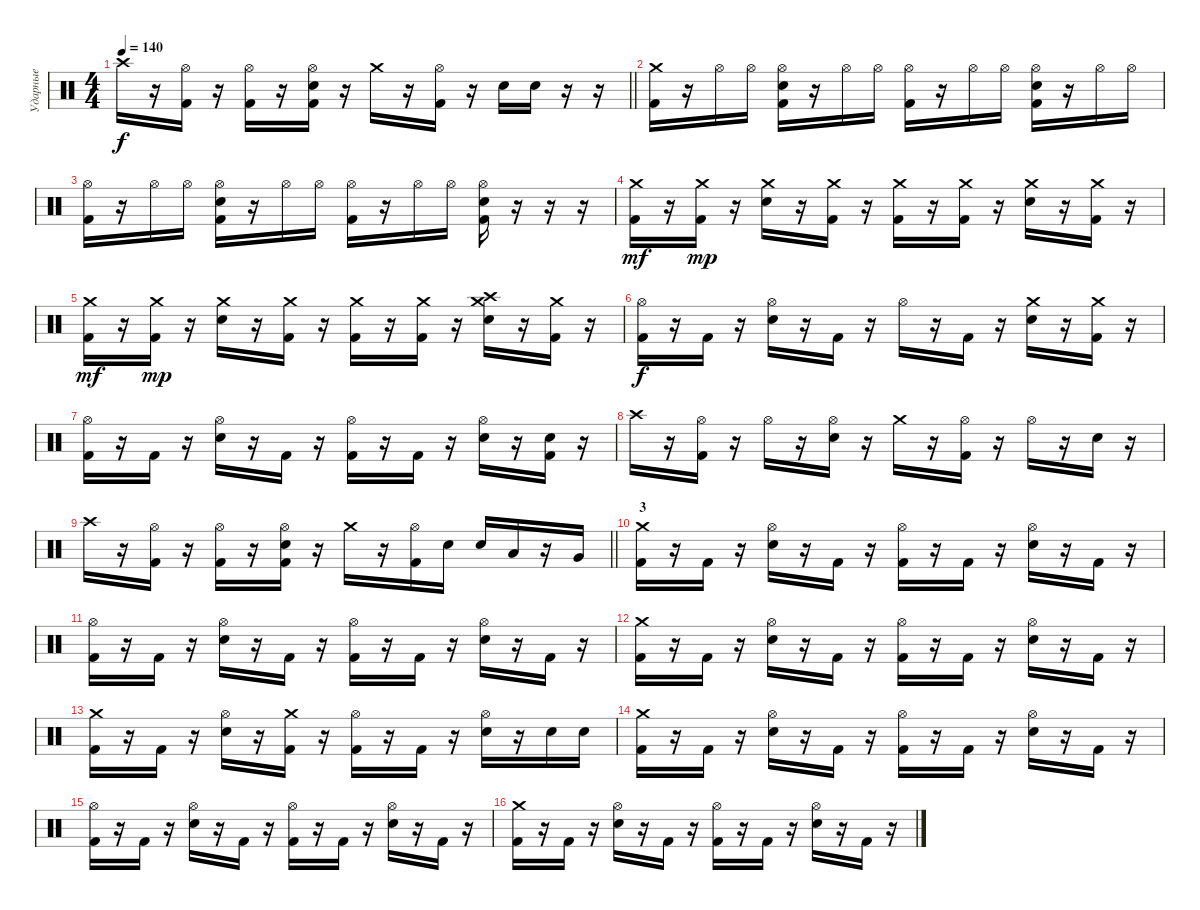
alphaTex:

\track ("Ударные" "Ударные") {instrument percussion}
\staff {score}
\articulation defaults
\ts (4 4)
\tempo 140
\clef neutral
\barLineRight lightlight
\ks c "Crash high (hit)".16{dy f}
r.16 ("Hi-Hat (open)" "Kick (hit) 2").16 r.16 ("Hi-Hat (open)" "Kick (hit) 2").16 r.16 ("Hi-Hat (open)" "Electric Snare (hit)" "Kick (hit) 2").16 r.16 "Crash medium (hit)".16 r.16 ("Hi-Hat (open)" "Kick (hit) 2").16 r.16 "Electric Snare (hit)".16 "Electric Snare (hit)".16 r.16 r.16 |
("Crash medium (hit)" "Kick (hit) 2").16 r.16 "Hi-Hat (open)".16 "Hi-Hat (open)".16 ("Hi-Hat (open)" "Electric Snare (hit)" "Kick (hit) 2").16 r.16 "Hi-Hat (open)".16 "Hi-Hat (open)".16 ("Hi-Hat (open)" "Kick (hit) 2").16 r.16 "Hi-Hat (open)".16 "Hi-Hat (open)".16 ("Hi-Hat (open)" "Electric Snare (hit)" "Kick (hit) 2").16 r.16 "Hi-Hat (open)".16 "Hi-Hat (open)".16 |
("Hi-Hat (open)" "Kick (hit) 2").16 r.16 "Hi-Hat (open)".16 "Hi-Hat (open)".16 ("Hi-Hat (open)" "Electric Snare (hit)" "Kick (hit) 2").16 r.16 "Hi-Hat (open)".16 "Hi-Hat (open)".16 ("Hi-Hat (open)" "Kick (hit) 2").16 r.16 "Hi-Hat (open)".16 "Hi-Hat (open)".16 ("Hi-Hat (open)" "Electric Snare (hit)" "Kick (hit) 2").16 r.16 r.16 r.16 |
("Crash medium (hit)" "Kick (hit) 2").16{dy mf} r.16 ("Crash medium (hit)" "Kick (hit) 2").16{dy mp} r.16 ("Crash medium (hit)" "Electric Snare (hit)").16 r.16 ("Crash medium (hit)" "Kick (hit) 2").16 r.16 ("Crash medium (hit)" "Kick (hit) 2").16 r.16 ("Crash medium (hit)" "Kick (hit) 2").16 r.16 ("Crash medium (hit)" "Electric Snare (hit)").16 r.16 ("Crash medium (hit)" "Kick (hit) 2").16 r.16 |
("Crash medium (hit)" "Kick (hit) 2").16{dy mf} r.16 ("Crash medium (hit)" "Kick (hit) 2").16{dy mp} r.16 ("Crash medium (hit)" "Electric Snare (hit)").16 r.16 ("Crash medium (hit)" "Kick (hit) 2").16 r.16 ("Crash medium (hit)" "Kick (hit) 2").16 r.16 ("Crash medium (hit)" "Kick (hit) 2").16 r.16 ("Crash medium (hit)" "Crash high (hit)" "Electric Snare (hit)").16 r.16 ("Crash medium (hit)" "Kick (hit) 2").16 r.16 |
("Hi-Hat (open)" "Kick (hit) 2").16{dy f} r.16 "Kick (hit) 2".16 r.16 ("Hi-Hat (open)" "Electric Snare (hit)").16 r.16 "Kick (hit) 2".16 r.16 "Hi-Hat (open)".16 r.16 "Kick (hit) 2".16 r.16 ("Crash medium (hit)" "Electric Snare (hit)").16 r.16 ("Crash medium (hit)" "Kick (hit) 2").16 r.16 |
("Hi-Hat (open)" "Kick (hit) 2").16 r.16 "Kick (hit) 2".16 r.16 ("Hi-Hat (open)" "Electric Snare (hit)").16 r.16 "Kick (hit) 2".16 r.16 ("Hi-Hat (open)" "Kick (hit) 2").16 r.16 "Kick (hit) 2".16 r.16 ("Hi-Hat (open)" "Electric Snare (hit)").16 r.16 ("Electric Snare (hit)" "Kick (hit) 2").16 r.16 |
"Crash high (hit)".16 r.16 ("Hi-Hat (open)" "Kick (hit) 2").16 r.16 "Hi-Hat (open)".16 r.16 ("Hi-Hat (open)" "Electric Snare (hit)").16 r.16 "Crash medium (hit)".16 r.16 ("Hi-Hat (open)" "Kick (hit) 2").16 r.16 "Hi-Hat (open)".16 r.16 "Electric Snare (hit)".16 r.16 |
\barLineRight lightlight "Crash high (hit)".16
r.16 ("Hi-Hat (open)" "Kick (hit) 2").16 r.16 ("Hi-Hat (open)" "Kick (hit) 2").16 r.16 ("Hi-Hat (open)" "Electric Snare (hit)" "Kick (hit) 2").16 r.16 "Crash medium (hit)".16 r.16 ("Hi-Hat (open)" "Kick (hit) 2").16 "Electric Snare (hit)".16 "Electric Snare (hit)".16 "Low Tom (hit)".16 r.16 "Very Low Tom (hit)".16 |
\section ("" " 3")
("Crash medium (hit)" "Kick (hit) 2").16 r.16 "Kick (hit) 2".16 r.16 ("Hi-Hat (open)" "Electric Snare (hit)").16 r.16 "Kick (hit) 2".16 r.16 ("Hi-Hat (open)" "Kick (hit) 2").16 r.16 "Kick (hit) 2".16 r.16 ("Hi-Hat (open)" "Electric Snare (hit)").16 r.16 "Kick (hit) 2".16 r.16 |
("Hi-Hat (open)" "Kick (hit) 2").16 r.16 "Kick (hit) 2".16 r.16 ("Hi-Hat (open)" "Electric Snare (hit)").16 r.16 "Kick (hit) 2".16 r.16 ("Hi-Hat (open)" "Kick (hit) 2").16 r.16 "Kick (hit) 2".16 r.16 ("Hi-Hat (open)" "Electric Snare (hit)").16 r.16 "Kick (hit) 2".16 r.16 |
("Crash medium (hit)" "Kick (hit) 2").16 r.16 "Kick (hit) 2".16 r.16 ("Hi-Hat (open)" "Electric Snare (hit)").16 r.16 "Kick (hit) 2".16 r.16 ("Hi-Hat (open)" "Kick (hit) 2").16 r.16 "Kick (hit) 2".16 r.16 ("Hi-Hat (open)" "Electric Snare (hit)").16 r.16 "Kick (hit) 2".16 r.16 |
("Crash medium (hit)" "Kick (hit) 2").16 r.16 "Kick (hit) 2".16 r.16 ("Hi-Hat (open)" "Electric Snare (hit)").16 r.16 ("Crash medium (hit)" "Kick (hit) 2").16 r.16 ("Hi-Hat (open)" "Kick (hit) 2").16 r.16 "Kick (hit) 2".16 r.16 ("Hi-Hat (open)" "Electric Snare (hit)").16 r.16 "Electric Snare (hit)".16 "Electric Snare (hit)".16 |
("Crash medium (hit)" "Kick (hit) 2").16 r.16 "Kick (hit) 2".16 r.16 ("Hi-Hat (open)" "Electric Snare (hit)").16 r.16 "Kick (hit) 2".16 r.16 ("Hi-Hat (open)" "Kick (hit) 2").16 r.16 "Kick (hit) 2".16 r.16 ("Hi-Hat (open)" "Electric Snare (hit)").16 r.16 "Kick (hit) 2".16 r.16 |
("Hi-Hat (open)" "Kick (hit) 2").16 r.16 "Kick (hit) 2".16 r.16 ("Hi-Hat (open)" "Electric Snare (hit)").16 r.16 "Kick (hit) 2".16 r.16 ("Hi-Hat (open)" "Kick (hit) 2").16 r.16 "Kick (hit) 2".16 r.16 ("Hi-Hat (open)" "Electric Snare (hit)").16 r.16 "Kick (hit) 2".16 r.16 |
("Crash medium (hit)" "Kick (hit) 2").16 r.16 "Kick (hit) 2".16 r.16 ("Hi-Hat (open)" "Electric Snare (hit)").16 r.16 "Kick (hit) 2".16 r.16 ("Hi-Hat (open)" "Kick (hit) 2").16 r.16 "Kick (hit) 2".16 r.16 ("Hi-Hat (open)" "Electric Snare (hit)").16 r.16 "Kick (hit) 2".16 r.16
